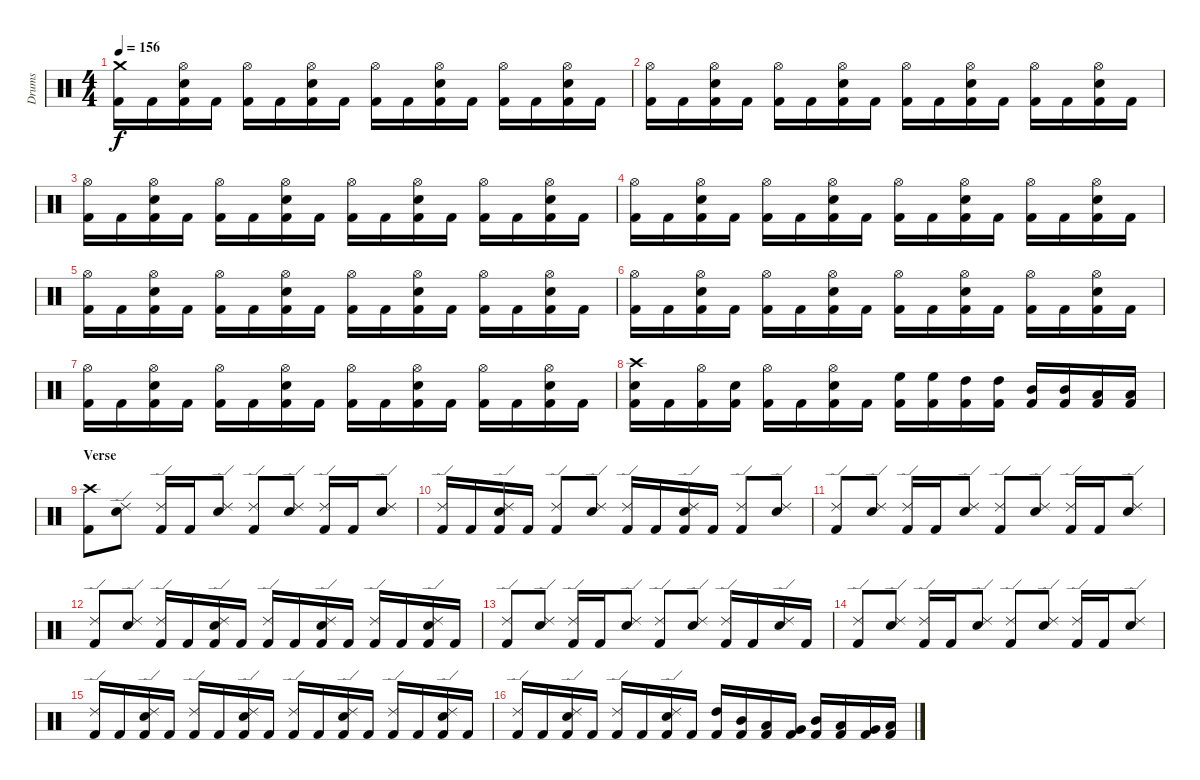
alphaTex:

\track ("Drums" "Drums") {instrument percussion}
\staff {score}
\articulation defaults
\ts (4 4)
\tempo 156
\clef neutral
\ks c
("Kick (hit) 2" "Crash medium (hit)").16{dy f} "Kick (hit) 2".16 ("Kick (hit) 2" "Snare (hit) 2" "Hi-Hat (open)").16 "Kick (hit) 2".16 ("Kick (hit) 2" "Hi-Hat (open)").16 "Kick (hit) 2".16 ("Kick (hit) 2" "Snare (hit) 2" "Hi-Hat (open)").16 "Kick (hit) 2".16 ("Kick (hit) 2" "Hi-Hat (open)").16 "Kick (hit) 2".16 ("Kick (hit) 2" "Snare (hit) 2" "Hi-Hat (open)").16 "Kick (hit) 2".16 ("Kick (hit) 2" "Hi-Hat (open)").16 "Kick (hit) 2".16 ("Kick (hit) 2" "Snare (hit) 2" "Hi-Hat (open)").16 "Kick (hit) 2".16 |
("Kick (hit) 2" "Hi-Hat (open)").16 "Kick (hit) 2".16 ("Kick (hit) 2" "Snare (hit) 2" "Hi-Hat (open)").16 "Kick (hit) 2".16 ("Kick (hit) 2" "Hi-Hat (open)").16 "Kick (hit) 2".16 ("Kick (hit) 2" "Snare (hit) 2" "Hi-Hat (open)").16 "Kick (hit) 2".16 ("Kick (hit) 2" "Hi-Hat (open)").16 "Kick (hit) 2".16 ("Kick (hit) 2" "Snare (hit) 2" "Hi-Hat (open)").16 "Kick (hit) 2".16 ("Kick (hit) 2" "Hi-Hat (open)").16 "Kick (hit) 2".16 ("Kick (hit) 2" "Snare (hit) 2" "Hi-Hat (open)").16 "Kick (hit) 2".16 |
("Kick (hit) 2" "Hi-Hat (open)").16 "Kick (hit) 2".16 ("Kick (hit) 2" "Snare (hit) 2" "Hi-Hat (open)").16 "Kick (hit) 2".16 ("Kick (hit) 2" "Hi-Hat (open)").16 "Kick (hit) 2".16 ("Kick (hit) 2" "Snare (hit) 2" "Hi-Hat (open)").16 "Kick (hit) 2".16 ("Kick (hit) 2" "Hi-Hat (open)").16 "Kick (hit) 2".16 ("Kick (hit) 2" "Snare (hit) 2" "Hi-Hat (open)").16 "Kick (hit) 2".16 ("Kick (hit) 2" "Hi-Hat (open)").16 "Kick (hit) 2".16 ("Kick (hit) 2" "Snare (hit) 2" "Hi-Hat (open)").16 "Kick (hit) 2".16 |
("Kick (hit) 2" "Hi-Hat (open)").16 "Kick (hit) 2".16 ("Kick (hit) 2" "Snare (hit) 2" "Hi-Hat (open)").16 "Kick (hit) 2".16 ("Kick (hit) 2" "Hi-Hat (open)").16 "Kick (hit) 2".16 ("Kick (hit) 2" "Snare (hit) 2" "Hi-Hat (open)").16 "Kick (hit) 2".16 ("Kick (hit) 2" "Hi-Hat (open)").16 "Kick (hit) 2".16 ("Kick (hit) 2" "Snare (hit) 2" "Hi-Hat (open)").16 "Kick (hit) 2".16 ("Kick (hit) 2" "Hi-Hat (open)").16 "Kick (hit) 2".16 ("Kick (hit) 2" "Snare (hit) 2" "Hi-Hat (open)").16 "Kick (hit) 2".16 |
("Kick (hit) 2" "Hi-Hat (open)").16 "Kick (hit) 2".16 ("Kick (hit) 2" "Snare (hit) 2" "Hi-Hat (open)").16 "Kick (hit) 2".16 ("Kick (hit) 2" "Hi-Hat (open)").16 "Kick (hit) 2".16 ("Kick (hit) 2" "Snare (hit) 2" "Hi-Hat (open)").16 "Kick (hit) 2".16 ("Kick (hit) 2" "Hi-Hat (open)").16 "Kick (hit) 2".16 ("Kick (hit) 2" "Snare (hit) 2" "Hi-Hat (open)").16 "Kick (hit) 2".16 ("Kick (hit) 2" "Hi-Hat (open)").16 "Kick (hit) 2".16 ("Kick (hit) 2" "Snare (hit) 2" "Hi-Hat (open)").16 "Kick (hit) 2".16 |
("Kick (hit) 2" "Hi-Hat (open)").16 "Kick (hit) 2".16 ("Kick (hit) 2" "Snare (hit) 2" "Hi-Hat (open)").16 "Kick (hit) 2".16 ("Kick (hit) 2" "Hi-Hat (open)").16 "Kick (hit) 2".16 ("Kick (hit) 2" "Snare (hit) 2" "Hi-Hat (open)").16 "Kick (hit) 2".16 ("Kick (hit) 2" "Hi-Hat (open)").16 "Kick (hit) 2".16 ("Kick (hit) 2" "Snare (hit) 2" "Hi-Hat (open)").16 "Kick (hit) 2".16 ("Kick (hit) 2" "Hi-Hat (open)").16 "Kick (hit) 2".16 ("Kick (hit) 2" "Snare (hit) 2" "Hi-Hat (open)").16 "Kick (hit) 2".16 |
("Kick (hit) 2" "Hi-Hat (open)").16 "Kick (hit) 2".16 ("Kick (hit) 2" "Snare (hit) 2" "Hi-Hat (open)").16 "Kick (hit) 2".16 ("Kick (hit) 2" "Hi-Hat (open)").16 "Kick (hit) 2".16 ("Kick (hit) 2" "Snare (hit) 2" "Hi-Hat (open)").16 "Kick (hit) 2".16 ("Kick (hit) 2" "Hi-Hat (open)").16 "Kick (hit) 2".16 ("Kick (hit) 2" "Snare (hit) 2" "Hi-Hat (open)").16 "Kick (hit) 2".16 ("Kick (hit) 2" "Hi-Hat (open)").16 "Kick (hit) 2".16 ("Kick (hit) 2" "Snare (hit) 2" "Hi-Hat (open)").16 "Kick (hit) 2".16 |
("Kick (hit) 2" "Snare (hit) 2" "Crash high (hit)").16 "Kick (hit) 2".16 ("Kick (hit) 2" "Hi-Hat (open)").16 ("Kick (hit) 2" "Snare (hit) 2").16 ("Kick (hit) 2" "Hi-Hat (open)").16 "Kick (hit) 2".16 ("Kick (hit) 2" "Snare (hit) 2" "Hi-Hat (open)").16 "Kick (hit) 2".16 ("Kick (hit) 2" "High Floor Tom (hit)").16 ("Kick (hit) 2" "High Floor Tom (hit)").16 ("Kick (hit) 2" "High Tom (hit)").16 ("Kick (hit) 2" "High Tom (hit)").16 ("Kick (hit) 2" "Mid Tom (hit)").16 ("Kick (hit) 2" "Mid Tom (hit)").16 ("Kick (hit) 2" "Low Tom (hit)").16 ("Kick (hit) 2" "Low Tom (hit)").16 |
\section ("" "Verse")
("Kick (hit) 2" "Crash high (hit)").8 ("Snare (hit) 2" "Ride (edge) 2").8 ("Kick (hit) 2" "Ride (edge) 2").16 "Kick (hit) 2".16 ("Snare (hit) 2" "Ride (edge) 2").8 ("Kick (hit) 2" "Ride (edge) 2").8 ("Snare (hit) 2" "Ride (edge) 2").8 ("Kick (hit) 2" "Ride (edge) 2").16 "Kick (hit) 2".16 ("Snare (hit) 2" "Ride (edge) 2").8 |
("Kick (hit) 2" "Ride (edge) 2").16 "Kick (hit) 2".16 ("Kick (hit) 2" "Snare (hit) 2" "Ride (edge) 2").16 "Kick (hit) 2".16 ("Kick (hit) 2" "Ride (edge) 2").8 ("Snare (hit) 2" "Ride (edge) 2").8 ("Kick (hit) 2" "Ride (edge) 2").16 "Kick (hit) 2".16 ("Kick (hit) 2" "Snare (hit) 2" "Ride (edge) 2").16 "Kick (hit) 2".16 ("Kick (hit) 2" "Ride (edge) 2").8 ("Snare (hit) 2" "Ride (edge) 2").8 |
("Kick (hit) 2" "Ride (edge) 2").8 ("Snare (hit) 2" "Ride (edge) 2").8 ("Kick (hit) 2" "Ride (edge) 2").16 "Kick (hit) 2".16 ("Snare (hit) 2" "Ride (edge) 2").8 ("Kick (hit) 2" "Ride (edge) 2").8 ("Snare (hit) 2" "Ride (edge) 2").8 ("Kick (hit) 2" "Ride (edge) 2").16 "Kick (hit) 2".16 ("Snare (hit) 2" "Ride (edge) 2").8 |
("Kick (hit) 2" "Ride (edge) 2").8 ("Snare (hit) 2" "Ride (edge) 2").8 ("Kick (hit) 2" "Ride (edge) 2").16 "Kick (hit) 2".16 ("Kick (hit) 2" "Snare (hit) 2" "Ride (edge) 2").16 "Kick (hit) 2".16 ("Kick (hit) 2" "Ride (edge) 2").16 "Kick (hit) 2".16 ("Kick (hit) 2" "Snare (hit) 2" "Ride (edge) 2").16 "Kick (hit) 2".16 ("Kick (hit) 2" "Ride (edge) 2").16 "Kick (hit) 2".16 ("Kick (hit) 2" "Snare (hit) 2" "Ride (edge) 2").16 "Kick (hit) 2".16 |
("Kick (hit) 2" "Ride (edge) 2").8 ("Snare (hit) 2" "Ride (edge) 2").8 ("Kick (hit) 2" "Ride (edge) 2").16 "Kick (hit) 2".16 ("Snare (hit) 2" "Ride (edge) 2").8 ("Kick (hit) 2" "Ride (edge) 2").8 ("Snare (hit) 2" "Ride (edge) 2").8 ("Kick (hit) 2" "Ride (edge) 2").16 "Kick (hit) 2".16 ("Snare (hit) 2" "Ride (edge) 2").16 "Kick (hit) 2".16 |
("Kick (hit) 2" "Ride (edge) 2").8 ("Snare (hit) 2" "Ride (edge) 2").8 ("Kick (hit) 2" "Ride (edge) 2").16 "Kick (hit) 2".16 ("Snare (hit) 2" "Ride (edge) 2").8 ("Kick (hit) 2" "Ride (edge) 2").8 ("Snare (hit) 2" "Ride (edge) 2").8 ("Kick (hit) 2" "Ride (edge) 2").16 "Kick (hit) 2".16 ("Snare (hit) 2" "Ride (edge) 2").8 |
("Kick (hit) 2" "Ride (edge) 2").16 "Kick (hit) 2".16 ("Kick (hit) 2" "Snare (hit) 2" "Ride (edge) 2").16 "Kick (hit) 2".16 ("Kick (hit) 2" "Ride (edge) 2").16 "Kick (hit) 2".16 ("Kick (hit) 2" "Snare (hit) 2" "Ride (edge) 2").16 "Kick (hit) 2".16 ("Kick (hit) 2" "Ride (edge) 2").16 "Kick (hit) 2".16 ("Kick (hit) 2" "Snare (hit) 2" "Ride (edge) 2").16 "Kick (hit) 2".16 ("Kick (hit) 2" "Ride (edge) 2").16 "Kick (hit) 2".16 ("Kick (hit) 2" "Snare (hit) 2" "Ride (edge) 2").16 "Kick (hit) 2".16 |
("Kick (hit) 2" "Ride (edge) 2").16 "Kick (hit) 2".16 ("Kick (hit) 2" "Snare (hit) 2" "Ride (edge) 2").16 "Kick (hit) 2".16 ("Kick (hit) 2" "Ride (edge) 2").16 "Kick (hit) 2".16 ("Kick (hit) 2" "Snare (hit) 2" "Ride (edge) 2").16 "Kick (hit) 2".16 ("Kick (hit) 2" "High Tom (hit)").16 ("Kick (hit) 2" "Mid Tom (hit)").16 ("Kick (hit) 2" "Low Tom (hit)").16 ("Kick (hit) 2" "Very Low Tom (hit)").16 ("Kick (hit) 2" "Mid Tom (hit)").16 ("Kick (hit) 2" "Low Tom (hit)").16 ("Kick (hit) 2" "Very Low Tom (hit)").16 ("Kick (hit) 2" "Low Floor Tom (hit)").16
